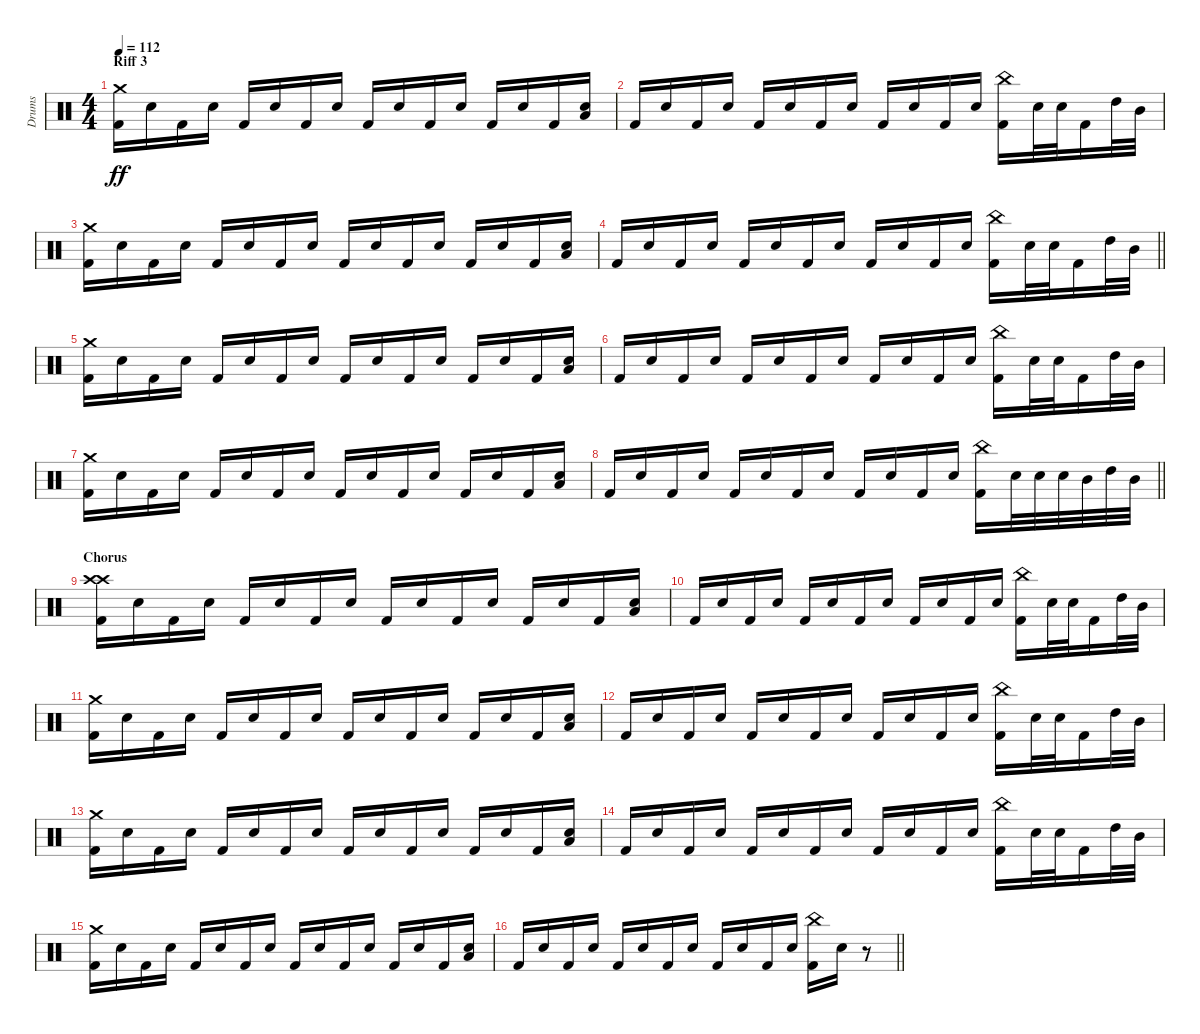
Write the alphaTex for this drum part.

\track ("Drums" "Drums") {instrument percussion}
\staff {score}
\articulation defaults
\ts (4 4)
\section ("" "Riff 3")
\tempo 112
\clef neutral
\ks c
("Crash medium (hit)" "Kick (hit) 2").16{dy ff} "Snare (hit) 2".16 "Kick (hit) 2".16 "Snare (hit) 2".16 "Kick (hit) 2".16 "Snare (hit) 2".16 "Kick (hit) 2".16 "Snare (hit) 2".16 "Kick (hit) 2".16 "Snare (hit) 2".16 "Kick (hit) 2".16 "Snare (hit) 2".16 "Kick (hit) 2".16 "Snare (hit) 2".16 "Kick (hit) 2".16 ("Snare (hit) 2" "Low Tom (hit)").16 |
"Kick (hit) 2".16 "Snare (hit) 2".16 "Kick (hit) 2".16 "Snare (hit) 2".16 "Kick (hit) 2".16 "Snare (hit) 2".16 "Kick (hit) 2".16 "Snare (hit) 2".16 "Kick (hit) 2".16 "Snare (hit) 2".16 "Kick (hit) 2".16 "Snare (hit) 2".16 ("China (hit)" "Kick (hit) 2").16 "Snare (hit) 2".32 "Snare (hit) 2".32 "Kick (hit) 2".16 "High Tom (hit)".32 "Mid Tom (hit)".32 |
("Crash medium (hit)" "Kick (hit) 2").16 "Snare (hit) 2".16 "Kick (hit) 2".16 "Snare (hit) 2".16 "Kick (hit) 2".16 "Snare (hit) 2".16 "Kick (hit) 2".16 "Snare (hit) 2".16 "Kick (hit) 2".16 "Snare (hit) 2".16 "Kick (hit) 2".16 "Snare (hit) 2".16 "Kick (hit) 2".16 "Snare (hit) 2".16 "Kick (hit) 2".16 ("Snare (hit) 2" "Low Tom (hit)").16 |
\barLineRight lightlight "Kick (hit) 2".16 "Snare (hit) 2".16 "Kick (hit) 2".16 "Snare (hit) 2".16 "Kick (hit) 2".16 "Snare (hit) 2".16 "Kick (hit) 2".16 "Snare (hit) 2".16 "Kick (hit) 2".16 "Snare (hit) 2".16 "Kick (hit) 2".16 "Snare (hit) 2".16
("China (hit)" "Kick (hit) 2").16 "Snare (hit) 2".32 "Snare (hit) 2".32 "Kick (hit) 2".16 "High Tom (hit)".32 "Mid Tom (hit)".32 |
("Crash medium (hit)" "Kick (hit) 2").16 "Snare (hit) 2".16 "Kick (hit) 2".16 "Snare (hit) 2".16 "Kick (hit) 2".16 "Snare (hit) 2".16 "Kick (hit) 2".16 "Snare (hit) 2".16 "Kick (hit) 2".16 "Snare (hit) 2".16 "Kick (hit) 2".16 "Snare (hit) 2".16 "Kick (hit) 2".16 "Snare (hit) 2".16 "Kick (hit) 2".16 ("Snare (hit) 2" "Low Tom (hit)").16 |
"Kick (hit) 2".16 "Snare (hit) 2".16 "Kick (hit) 2".16 "Snare (hit) 2".16 "Kick (hit) 2".16 "Snare (hit) 2".16 "Kick (hit) 2".16 "Snare (hit) 2".16 "Kick (hit) 2".16 "Snare (hit) 2".16 "Kick (hit) 2".16 "Snare (hit) 2".16 ("China (hit)" "Kick (hit) 2").16 "Snare (hit) 2".32 "Snare (hit) 2".32 "Kick (hit) 2".16 "High Tom (hit)".32 "Mid Tom (hit)".32 |
("Crash medium (hit)" "Kick (hit) 2").16 "Snare (hit) 2".16 "Kick (hit) 2".16 "Snare (hit) 2".16 "Kick (hit) 2".16 "Snare (hit) 2".16 "Kick (hit) 2".16 "Snare (hit) 2".16 "Kick (hit) 2".16 "Snare (hit) 2".16 "Kick (hit) 2".16 "Snare (hit) 2".16 "Kick (hit) 2".16 "Snare (hit) 2".16 "Kick (hit) 2".16 ("Snare (hit) 2" "Low Tom (hit)").16 |
\barLineRight lightlight "Kick (hit) 2".16 "Snare (hit) 2".16 "Kick (hit) 2".16 "Snare (hit) 2".16 "Kick (hit) 2".16 "Snare (hit) 2".16 "Kick (hit) 2".16 "Snare (hit) 2".16 "Kick (hit) 2".16 "Snare (hit) 2".16 "Kick (hit) 2".16 "Snare (hit) 2".16
("China (hit)" "Kick (hit) 2").16 "Snare (hit) 2".32 "Snare (hit) 2".32 "Snare (hit) 2".32 "Mid Tom (hit)".32 "High Tom (hit)".32 "Mid Tom (hit)".32 |
\section ("" "Chorus")
("Crash high (hit)" "Crash high (hit)" "Kick (hit) 2").16 "Snare (hit) 2".16 "Kick (hit) 2".16 "Snare (hit) 2".16 "Kick (hit) 2".16 "Snare (hit) 2".16 "Kick (hit) 2".16 "Snare (hit) 2".16 "Kick (hit) 2".16 "Snare (hit) 2".16 "Kick (hit) 2".16 "Snare (hit) 2".16 "Kick (hit) 2".16 "Snare (hit) 2".16 "Kick (hit) 2".16 ("Snare (hit) 2" "Low Tom (hit)").16 |
"Kick (hit) 2".16 "Snare (hit) 2".16 "Kick (hit) 2".16 "Snare (hit) 2".16 "Kick (hit) 2".16 "Snare (hit) 2".16 "Kick (hit) 2".16 "Snare (hit) 2".16 "Kick (hit) 2".16 "Snare (hit) 2".16 "Kick (hit) 2".16 "Snare (hit) 2".16 ("China (hit)" "Kick (hit) 2").16 "Snare (hit) 2".32 "Snare (hit) 2".32 "Kick (hit) 2".16 "High Tom (hit)".32 "Mid Tom (hit)".32 |
("Crash medium (hit)" "Kick (hit) 2").16 "Snare (hit) 2".16 "Kick (hit) 2".16 "Snare (hit) 2".16 "Kick (hit) 2".16 "Snare (hit) 2".16 "Kick (hit) 2".16 "Snare (hit) 2".16 "Kick (hit) 2".16 "Snare (hit) 2".16 "Kick (hit) 2".16 "Snare (hit) 2".16 "Kick (hit) 2".16 "Snare (hit) 2".16 "Kick (hit) 2".16 ("Snare (hit) 2" "Low Tom (hit)").16 |
"Kick (hit) 2".16 "Snare (hit) 2".16 "Kick (hit) 2".16 "Snare (hit) 2".16 "Kick (hit) 2".16 "Snare (hit) 2".16 "Kick (hit) 2".16 "Snare (hit) 2".16 "Kick (hit) 2".16 "Snare (hit) 2".16 "Kick (hit) 2".16 "Snare (hit) 2".16 ("China (hit)" "Kick (hit) 2").16 "Snare (hit) 2".32 "Snare (hit) 2".32 "Kick (hit) 2".16 "High Tom (hit)".32 "Mid Tom (hit)".32 |
("Crash medium (hit)" "Kick (hit) 2").16 "Snare (hit) 2".16 "Kick (hit) 2".16 "Snare (hit) 2".16 "Kick (hit) 2".16 "Snare (hit) 2".16 "Kick (hit) 2".16 "Snare (hit) 2".16 "Kick (hit) 2".16 "Snare (hit) 2".16 "Kick (hit) 2".16 "Snare (hit) 2".16 "Kick (hit) 2".16 "Snare (hit) 2".16 "Kick (hit) 2".16 ("Snare (hit) 2" "Low Tom (hit)").16 |
"Kick (hit) 2".16 "Snare (hit) 2".16 "Kick (hit) 2".16 "Snare (hit) 2".16 "Kick (hit) 2".16 "Snare (hit) 2".16 "Kick (hit) 2".16 "Snare (hit) 2".16 "Kick (hit) 2".16 "Snare (hit) 2".16 "Kick (hit) 2".16 "Snare (hit) 2".16 ("China (hit)" "Kick (hit) 2").16 "Snare (hit) 2".32 "Snare (hit) 2".32 "Kick (hit) 2".16 "High Tom (hit)".32 "Mid Tom (hit)".32 |
("Crash medium (hit)" "Kick (hit) 2").16 "Snare (hit) 2".16 "Kick (hit) 2".16 "Snare (hit) 2".16 "Kick (hit) 2".16 "Snare (hit) 2".16 "Kick (hit) 2".16 "Snare (hit) 2".16 "Kick (hit) 2".16 "Snare (hit) 2".16 "Kick (hit) 2".16 "Snare (hit) 2".16 "Kick (hit) 2".16 "Snare (hit) 2".16 "Kick (hit) 2".16 ("Snare (hit) 2" "Low Tom (hit)").16 |
\barLineRight lightlight "Kick (hit) 2".16 "Snare (hit) 2".16 "Kick (hit) 2".16 "Snare (hit) 2".16 "Kick (hit) 2".16 "Snare (hit) 2".16 "Kick (hit) 2".16 "Snare (hit) 2".16 "Kick (hit) 2".16 "Snare (hit) 2".16 "Kick (hit) 2".16 "Snare (hit) 2".16
("China (hit)" "Kick (hit) 2").16 "Snare (hit) 2".16 r.8
